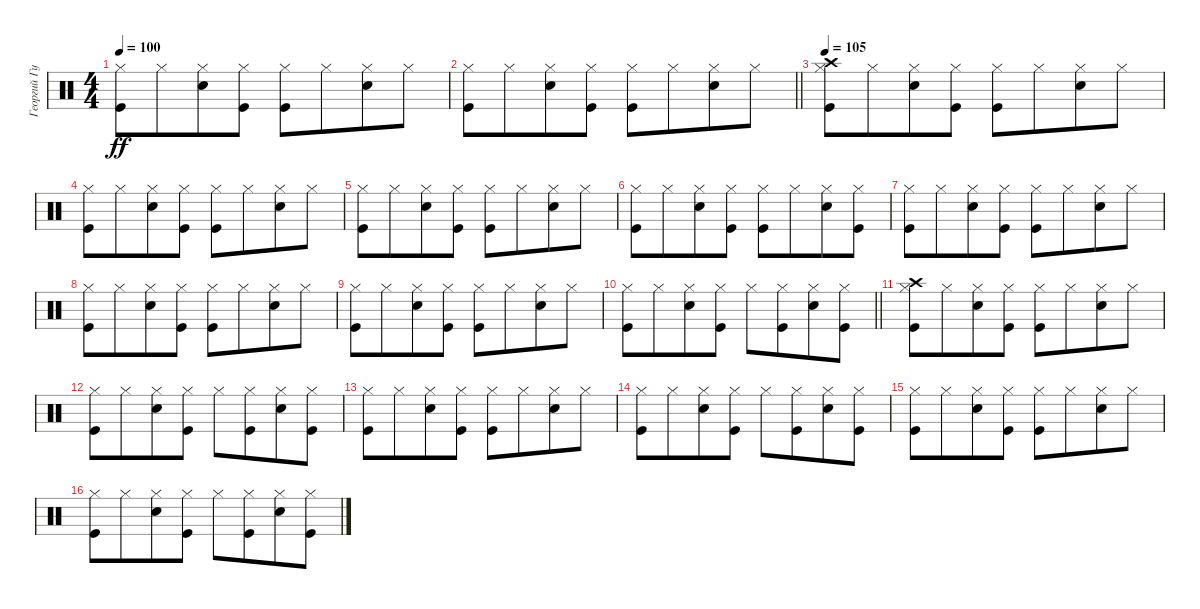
\track ("Георгий Гурьянов" "Георгий Гу") {instrument percussion}
\staff {score}
\articulation defaults
\ts (4 4)
\tempo 100
\clef neutral
\ks c
("Hi-Hat (closed)" "Kick (hit)").8{dy ff} "Hi-Hat (closed)".8{beam merge} ("Hi-Hat (closed)" "Snare (hit) 2").8 ("Hi-Hat (closed)" "Kick (hit)").8 ("Hi-Hat (closed)" "Kick (hit)").8 "Hi-Hat (closed)".8{beam merge} ("Hi-Hat (closed)" "Snare (hit) 2").8 "Hi-Hat (closed)".8 |
\barLineRight lightlight
("Hi-Hat (closed)" "Kick (hit)").8 "Hi-Hat (closed)".8{beam merge} ("Hi-Hat (closed)" "Snare (hit) 2").8 ("Hi-Hat (closed)" "Kick (hit)").8 ("Hi-Hat (closed)" "Kick (hit)").8 "Hi-Hat (closed)".8{beam merge} ("Hi-Hat (closed)" "Snare (hit) 2").8 "Hi-Hat (closed)".8 |
\tempo 105
("Hi-Hat (closed)" "Crash high (hit)" "Kick (hit)").8 "Hi-Hat (closed)".8{beam merge} ("Hi-Hat (closed)" "Snare (hit) 2").8 ("Hi-Hat (closed)" "Kick (hit)").8 ("Hi-Hat (closed)" "Kick (hit)").8 "Hi-Hat (closed)".8{beam merge} ("Hi-Hat (closed)" "Snare (hit) 2").8 "Hi-Hat (closed)".8 |
("Hi-Hat (closed)" "Kick (hit)").8 "Hi-Hat (closed)".8{beam merge} ("Hi-Hat (closed)" "Snare (hit) 2").8 ("Hi-Hat (closed)" "Kick (hit)").8 ("Hi-Hat (closed)" "Kick (hit)").8 "Hi-Hat (closed)".8{beam merge} ("Hi-Hat (closed)" "Snare (hit) 2").8 "Hi-Hat (closed)".8 |
("Hi-Hat (closed)" "Kick (hit)").8 "Hi-Hat (closed)".8{beam merge} ("Hi-Hat (closed)" "Snare (hit) 2").8 ("Hi-Hat (closed)" "Kick (hit)").8 ("Hi-Hat (closed)" "Kick (hit)").8 "Hi-Hat (closed)".8{beam merge} ("Hi-Hat (closed)" "Snare (hit) 2").8 "Hi-Hat (closed)".8 |
("Hi-Hat (closed)" "Kick (hit)").8 "Hi-Hat (closed)".8{beam merge} ("Hi-Hat (closed)" "Snare (hit) 2").8 ("Hi-Hat (closed)" "Kick (hit)").8 ("Hi-Hat (closed)" "Kick (hit)").8 "Hi-Hat (closed)".8{beam merge} ("Hi-Hat (closed)" "Snare (hit) 2").8 ("Hi-Hat (closed)" "Kick (hit)").8 |
("Hi-Hat (closed)" "Kick (hit)").8 "Hi-Hat (closed)".8{beam merge} ("Hi-Hat (closed)" "Snare (hit) 2").8 ("Hi-Hat (closed)" "Kick (hit)").8 ("Hi-Hat (closed)" "Kick (hit)").8 "Hi-Hat (closed)".8{beam merge} ("Hi-Hat (closed)" "Snare (hit) 2").8 "Hi-Hat (closed)".8 |
("Hi-Hat (closed)" "Kick (hit)").8 "Hi-Hat (closed)".8{beam merge} ("Hi-Hat (closed)" "Snare (hit) 2").8 ("Hi-Hat (closed)" "Kick (hit)").8 ("Hi-Hat (closed)" "Kick (hit)").8 "Hi-Hat (closed)".8{beam merge} ("Hi-Hat (closed)" "Snare (hit) 2").8 "Hi-Hat (closed)".8 |
("Hi-Hat (closed)" "Kick (hit)").8 "Hi-Hat (closed)".8{beam merge} ("Hi-Hat (closed)" "Snare (hit) 2").8 ("Hi-Hat (closed)" "Kick (hit)").8 ("Hi-Hat (closed)" "Kick (hit)").8 "Hi-Hat (closed)".8{beam merge} ("Hi-Hat (closed)" "Snare (hit) 2").8 "Hi-Hat (closed)".8 |
\barLineRight lightlight
("Hi-Hat (closed)" "Kick (hit)").8 "Hi-Hat (closed)".8{beam merge} ("Hi-Hat (closed)" "Snare (hit) 2").8 ("Hi-Hat (closed)" "Kick (hit)").8 "Hi-Hat (closed)".8 ("Hi-Hat (closed)" "Kick (hit)").8{beam merge} ("Hi-Hat (closed)" "Snare (hit) 2").8 ("Hi-Hat (closed)" "Kick (hit)").8 |
("Hi-Hat (closed)" "Crash high (hit)" "Kick (hit)").8 "Hi-Hat (closed)".8{beam merge} ("Hi-Hat (closed)" "Snare (hit) 2").8 ("Hi-Hat (closed)" "Kick (hit)").8 ("Hi-Hat (closed)" "Kick (hit)").8 "Hi-Hat (closed)".8{beam merge} ("Hi-Hat (closed)" "Snare (hit) 2").8 "Hi-Hat (closed)".8 |
("Hi-Hat (closed)" "Kick (hit)").8 "Hi-Hat (closed)".8{beam merge} ("Hi-Hat (closed)" "Snare (hit) 2").8 ("Hi-Hat (closed)" "Kick (hit)").8 "Hi-Hat (closed)".8 ("Hi-Hat (closed)" "Kick (hit)").8{beam merge} ("Hi-Hat (closed)" "Snare (hit) 2").8 ("Hi-Hat (closed)" "Kick (hit)").8 |
("Hi-Hat (closed)" "Kick (hit)").8 "Hi-Hat (closed)".8{beam merge} ("Hi-Hat (closed)" "Snare (hit) 2").8 ("Hi-Hat (closed)" "Kick (hit)").8 ("Hi-Hat (closed)" "Kick (hit)").8 "Hi-Hat (closed)".8{beam merge} ("Hi-Hat (closed)" "Snare (hit) 2").8 "Hi-Hat (closed)".8 |
("Hi-Hat (closed)" "Kick (hit)").8 "Hi-Hat (closed)".8{beam merge} ("Hi-Hat (closed)" "Snare (hit) 2").8 ("Hi-Hat (closed)" "Kick (hit)").8 "Hi-Hat (closed)".8 ("Hi-Hat (closed)" "Kick (hit)").8{beam merge} ("Hi-Hat (closed)" "Snare (hit) 2").8 ("Hi-Hat (closed)" "Kick (hit)").8 |
("Hi-Hat (closed)" "Kick (hit)").8 "Hi-Hat (closed)".8{beam merge} ("Hi-Hat (closed)" "Snare (hit) 2").8 ("Hi-Hat (closed)" "Kick (hit)").8 ("Hi-Hat (closed)" "Kick (hit)").8 "Hi-Hat (closed)".8{beam merge} ("Hi-Hat (closed)" "Snare (hit) 2").8 "Hi-Hat (closed)".8 |
("Hi-Hat (closed)" "Kick (hit)").8 "Hi-Hat (closed)".8{beam merge} ("Hi-Hat (closed)" "Snare (hit) 2").8 ("Hi-Hat (closed)" "Kick (hit)").8 "Hi-Hat (closed)".8 ("Hi-Hat (closed)" "Kick (hit)").8{beam merge} ("Hi-Hat (closed)" "Snare (hit) 2").8 ("Hi-Hat (closed)" "Kick (hit)").8
